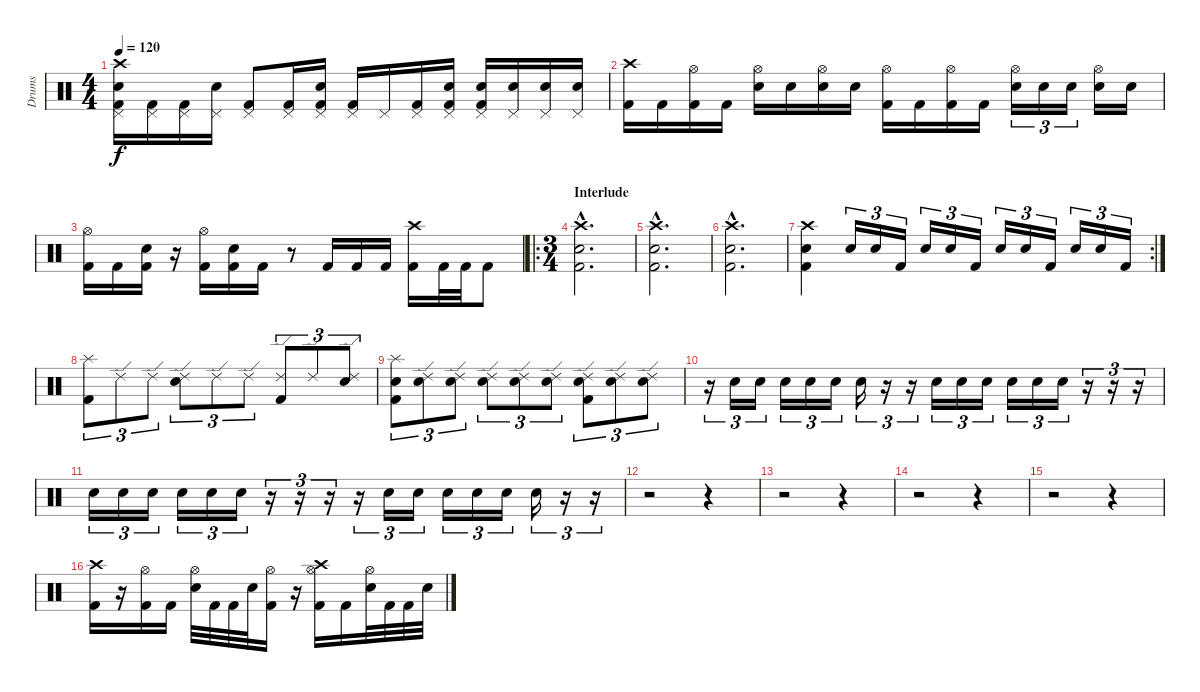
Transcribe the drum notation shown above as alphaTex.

\track ("Drums" "Drums") {instrument percussion}
\staff {score}
\articulation defaults
\ts (4 4)
\tempo 120
\clef neutral
\ks c
("Crash high (hit)" "Pedal Hi-Hat (hit)" "Electric Snare (hit)" "Kick (hit) 2").16{dy f} ("Pedal Hi-Hat (hit)" "Kick (hit) 2").16 ("Pedal Hi-Hat (hit)" "Kick (hit) 2").16 ("Pedal Hi-Hat (hit)" "Electric Snare (hit)").16 ("Pedal Hi-Hat (hit)" "Kick (hit) 2").8 ("Pedal Hi-Hat (hit)" "Kick (hit) 2").16 ("Pedal Hi-Hat (hit)" "Electric Snare (hit)" "Kick (hit) 2").16 ("Pedal Hi-Hat (hit)" "Kick (hit) 2").16 "Pedal Hi-Hat (hit)".16 ("Pedal Hi-Hat (hit)" "Kick (hit) 2").16 ("Pedal Hi-Hat (hit)" "Electric Snare (hit)" "Kick (hit) 2").16 ("Pedal Hi-Hat (hit)" "Electric Snare (hit)" "Kick (hit) 2").16 ("Pedal Hi-Hat (hit)" "Electric Snare (hit)").16 ("Pedal Hi-Hat (hit)" "Electric Snare (hit)").16 ("Pedal Hi-Hat (hit)" "Electric Snare (hit)").16 |
("Crash high (hit)" "Kick (hit) 2").16 "Kick (hit) 2".16 ("Hi-Hat (open)" "Kick (hit) 2").16 "Kick (hit) 2".16 ("Hi-Hat (open)" "Electric Snare (hit)").16 "Electric Snare (hit)".16 ("Hi-Hat (open)" "Electric Snare (hit)").16 "Electric Snare (hit)".16 ("Hi-Hat (open)" "Kick (hit) 2").16 "Kick (hit) 2".16 ("Hi-Hat (open)" "Kick (hit) 2").16 "Kick (hit) 2".16 ("Hi-Hat (open)" "Electric Snare (hit)").16{tu (3 2)} "Electric Snare (hit)".16{tu (3 2)} "Electric Snare (hit)".16{tu (3 2)} ("Hi-Hat (open)" "Electric Snare (hit)").16 "Electric Snare (hit)".16 |
("Hi-Hat (open)" "Kick (hit) 2").16 "Kick (hit) 2".16 ("Electric Snare (hit)" "Kick (hit) 2").16 r.16 ("Hi-Hat (open)" "Kick (hit) 2").16 ("Electric Snare (hit)" "Kick (hit) 2").16 "Kick (hit) 2".16 r.8 "Kick (hit) 2".16 "Kick (hit) 2".16 "Kick (hit) 2".16 ("Crash high (hit)" "Kick (hit) 2").16 "Kick (hit) 2".32 "Kick (hit) 2".32 "Kick (hit) 2".8 |
\ro
\ts (3 4)
\section ("" "Interlude")
("Crash high (hit)"{hac} "Electric Snare (hit)"{hac} "Kick (hit) 2"{hac}).2{d} |
("Crash high (hit)"{hac} "Electric Snare (hit)"{hac} "Kick (hit) 2"{hac}).2{d} |
("Crash high (hit)"{hac} "Electric Snare (hit)"{hac} "Kick (hit) 2"{hac}).2{d} |
\rc 2
("Crash high (hit)" "Electric Snare (hit)" "Kick (hit) 2").4 "Electric Snare (hit)".16{tu (3 2)} "Electric Snare (hit)".16{tu (3 2)} "Kick (hit) 2".16{tu (3 2)} "Electric Snare (hit)".16{tu (3 2)} "Electric Snare (hit)".16{tu (3 2)} "Kick (hit) 2".16{tu (3 2)} "Electric Snare (hit)".16{tu (3 2)} "Electric Snare (hit)".16{tu (3 2)} "Kick (hit) 2".16{tu (3 2)} "Electric Snare (hit)".16{tu (3 2)} "Electric Snare (hit)".16{tu (3 2)} "Kick (hit) 2".16{tu (3 2)} |
("Splash (hit)" "Kick (hit) 2").8{tu (3 2)} "Ride (edge) 2".8{tu (3 2)} "Ride (edge) 2".8{tu (3 2)} ("Ride (edge) 2" "Electric Snare (hit)").8{tu (3 2)} "Ride (edge) 2".8{tu (3 2)} "Ride (edge) 2".8{tu (3 2)} ("Ride (edge) 2" "Kick (hit) 2").8{tu (3 2)} "Ride (edge) 2".8{tu (3 2)} ("Ride (edge) 2" "Electric Snare (hit)").8{tu (3 2)} |
("Splash (hit)" "Electric Snare (hit)" "Kick (hit) 2").8{tu (3 2)} ("Ride (edge) 2" "Electric Snare (hit)").8{tu (3 2)} ("Ride (edge) 2" "Electric Snare (hit)").8{tu (3 2)} ("Ride (edge) 2" "Electric Snare (hit)").8{tu (3 2)} ("Ride (edge) 2" "Electric Snare (hit)").8{tu (3 2)} ("Ride (edge) 2" "Electric Snare (hit)").8{tu (3 2)} ("Ride (edge) 2" "Electric Snare (hit)" "Kick (hit) 2").8{tu (3 2)} ("Ride (edge) 2" "Electric Snare (hit)").8{tu (3 2)} ("Ride (edge) 2" "Electric Snare (hit)").8{tu (3 2)} |
r.16{tu (3 2)} "Electric Snare (hit)".16{tu (3 2)} "Electric Snare (hit)".16{tu (3 2)} "Electric Snare (hit)".16{tu (3 2)} "Electric Snare (hit)".16{tu (3 2)} "Electric Snare (hit)".16{tu (3 2)} "Electric Snare (hit)".16{tu (3 2)} r.16{tu (3 2)} r.16{tu (3 2)} "Electric Snare (hit)".16{tu (3 2)} "Electric Snare (hit)".16{tu (3 2)} "Electric Snare (hit)".16{tu (3 2)} "Electric Snare (hit)".16{tu (3 2)} "Electric Snare (hit)".16{tu (3 2)} "Electric Snare (hit)".16{tu (3 2)} r.16{tu (3 2)} r.16{tu (3 2)} r.16{tu (3 2)} |
"Electric Snare (hit)".16{tu (3 2)} "Electric Snare (hit)".16{tu (3 2)} "Electric Snare (hit)".16{tu (3 2)} "Electric Snare (hit)".16{tu (3 2)} "Electric Snare (hit)".16{tu (3 2)} "Electric Snare (hit)".16{tu (3 2)} r.16{tu (3 2)} r.16{tu (3 2)} r.16{tu (3 2)} r.16{tu (3 2)} "Electric Snare (hit)".16{tu (3 2)} "Electric Snare (hit)".16{tu (3 2)} "Electric Snare (hit)".16{tu (3 2)} "Electric Snare (hit)".16{tu (3 2)} "Electric Snare (hit)".16{tu (3 2)} "Electric Snare (hit)".16{tu (3 2)} r.16{tu (3 2)} r.16{tu (3 2)} |
r.2 r.4 |
r.2 r.4 |
r.2 r.4 |
r.2 r.4 |
("Crash high (hit)" "Kick (hit) 2").16 r.16 ("Hi-Hat (open)" "Kick (hit) 2").16 "Kick (hit) 2".16 ("Hi-Hat (open)" "Electric Snare (hit)").32 "Kick (hit) 2".32 "Kick (hit) 2".32 "Electric Snare (hit)".32 ("Hi-Hat (open)" "Kick (hit) 2").16 r.16 ("Crash high (hit)" "Hi-Hat (open)" "Kick (hit) 2").16 "Kick (hit) 2".16 ("Hi-Hat (open)" "Electric Snare (hit)").32 "Kick (hit) 2".32 "Kick (hit) 2".32 "Electric Snare (hit)".32
